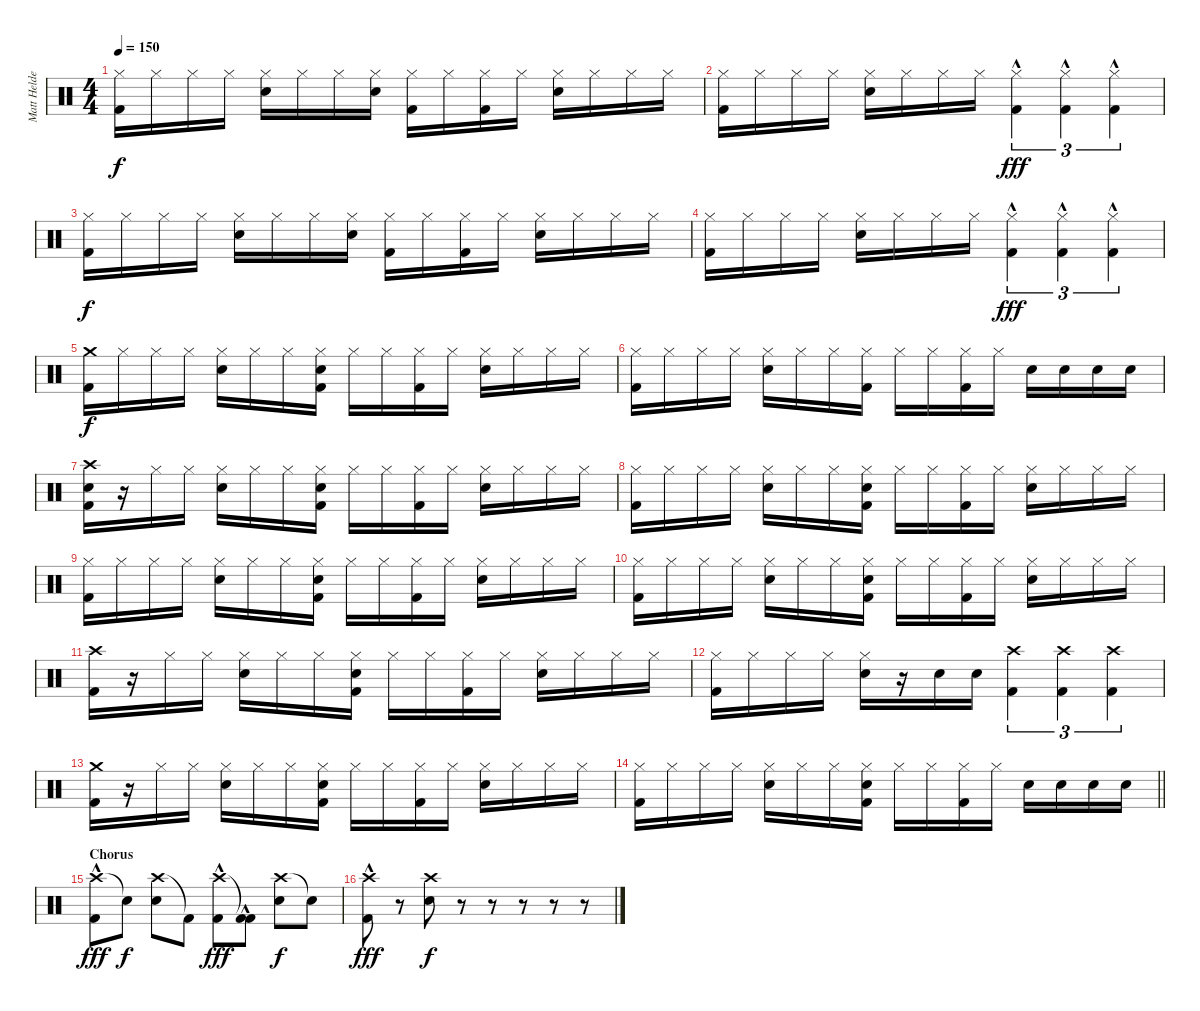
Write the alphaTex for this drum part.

\track ("Matt Helders" "Matt Helde") {instrument percussion}
\staff {score}
\articulation defaults
\ts (4 4)
\tempo 150
\clef neutral
\ks c
("Hi-Hat (closed)" "Kick (hit) 2").16{dy f} "Hi-Hat (closed)".16 "Hi-Hat (closed)".16 "Hi-Hat (closed)".16 ("Hi-Hat (closed)" "Snare (hit) 2").16 "Hi-Hat (closed)".16 "Hi-Hat (closed)".16 ("Hi-Hat (closed)" "Snare (hit) 2").16 ("Hi-Hat (closed)" "Kick (hit) 2").16 "Hi-Hat (closed)".16 ("Hi-Hat (closed)" "Kick (hit) 2").16 "Hi-Hat (closed)".16 ("Hi-Hat (closed)" "Snare (hit) 2").16 "Hi-Hat (closed)".16 "Hi-Hat (closed)".16 "Hi-Hat (closed)".16 |
("Hi-Hat (closed)" "Kick (hit) 2").16 "Hi-Hat (closed)".16 "Hi-Hat (closed)".16 "Hi-Hat (closed)".16 ("Hi-Hat (closed)" "Snare (hit) 2").16 "Hi-Hat (closed)".16 "Hi-Hat (closed)".16 "Hi-Hat (closed)".16 ("Kick (hit) 2" "Hi-Hat (closed)"{hac}).4{tu (3 2) dy fff} ("Kick (hit) 2" "Hi-Hat (closed)"{hac}).4{tu (3 2)} ("Kick (hit) 2" "Hi-Hat (closed)"{hac}).4{tu (3 2)} |
("Hi-Hat (closed)" "Kick (hit) 2").16{dy f} "Hi-Hat (closed)".16 "Hi-Hat (closed)".16 "Hi-Hat (closed)".16 ("Hi-Hat (closed)" "Snare (hit) 2").16 "Hi-Hat (closed)".16 "Hi-Hat (closed)".16 ("Hi-Hat (closed)" "Snare (hit) 2").16 ("Hi-Hat (closed)" "Kick (hit) 2").16 "Hi-Hat (closed)".16 ("Hi-Hat (closed)" "Kick (hit) 2").16 "Hi-Hat (closed)".16 ("Hi-Hat (closed)" "Snare (hit) 2").16 "Hi-Hat (closed)".16 "Hi-Hat (closed)".16 "Hi-Hat (closed)".16 |
("Hi-Hat (closed)" "Kick (hit) 2").16 "Hi-Hat (closed)".16 "Hi-Hat (closed)".16 "Hi-Hat (closed)".16 ("Hi-Hat (closed)" "Snare (hit) 2").16 "Hi-Hat (closed)".16 "Hi-Hat (closed)".16 "Hi-Hat (closed)".16 ("Kick (hit) 2" "Hi-Hat (closed)"{hac}).4{tu (3 2) dy fff} ("Kick (hit) 2" "Hi-Hat (closed)"{hac}).4{tu (3 2)} ("Kick (hit) 2" "Hi-Hat (closed)"{hac}).4{tu (3 2)} |
("Crash medium (hit)" "Kick (hit) 2").16{dy f} "Hi-Hat (closed)".16 "Hi-Hat (closed)".16 "Hi-Hat (closed)".16 ("Hi-Hat (closed)" "Snare (hit) 2").16 "Hi-Hat (closed)".16 "Hi-Hat (closed)".16 ("Hi-Hat (closed)" "Snare (hit) 2" "Kick (hit) 2").16 "Hi-Hat (closed)".16 "Hi-Hat (closed)".16 ("Hi-Hat (closed)" "Kick (hit) 2").16 "Hi-Hat (closed)".16 ("Hi-Hat (closed)" "Snare (hit) 2").16 "Hi-Hat (closed)".16 "Hi-Hat (closed)".16 "Hi-Hat (closed)".16 |
("Hi-Hat (closed)" "Kick (hit) 2").16 "Hi-Hat (closed)".16 "Hi-Hat (closed)".16 "Hi-Hat (closed)".16 ("Hi-Hat (closed)" "Snare (hit) 2").16 "Hi-Hat (closed)".16 "Hi-Hat (closed)".16 ("Hi-Hat (closed)" "Kick (hit) 2").16 "Hi-Hat (closed)".16 "Hi-Hat (closed)".16 ("Hi-Hat (closed)" "Kick (hit) 2").16 "Hi-Hat (closed)".16 "Snare (hit) 2".16 "Snare (hit) 2".16 "Snare (hit) 2".16 "Snare (hit) 2".16 |
("Crash high (hit)" "Snare (hit) 2" "Kick (hit) 2").16 r.16 "Hi-Hat (closed)".16 "Hi-Hat (closed)".16 ("Hi-Hat (closed)" "Snare (hit) 2").16 "Hi-Hat (closed)".16 "Hi-Hat (closed)".16 ("Hi-Hat (closed)" "Snare (hit) 2" "Kick (hit) 2").16 "Hi-Hat (closed)".16 "Hi-Hat (closed)".16 ("Hi-Hat (closed)" "Kick (hit) 2").16 "Hi-Hat (closed)".16 ("Hi-Hat (closed)" "Snare (hit) 2").16 "Hi-Hat (closed)".16 "Hi-Hat (closed)".16 "Hi-Hat (closed)".16 |
("Hi-Hat (closed)" "Kick (hit) 2").16 "Hi-Hat (closed)".16 "Hi-Hat (closed)".16 "Hi-Hat (closed)".16 ("Hi-Hat (closed)" "Snare (hit) 2").16 "Hi-Hat (closed)".16 "Hi-Hat (closed)".16 ("Hi-Hat (closed)" "Snare (hit) 2" "Kick (hit) 2").16 "Hi-Hat (closed)".16 "Hi-Hat (closed)".16 ("Hi-Hat (closed)" "Kick (hit) 2").16 "Hi-Hat (closed)".16 ("Hi-Hat (closed)" "Snare (hit) 2").16 "Hi-Hat (closed)".16 "Hi-Hat (closed)".16 "Hi-Hat (closed)".16 |
("Hi-Hat (closed)" "Kick (hit) 2").16 "Hi-Hat (closed)".16 "Hi-Hat (closed)".16 "Hi-Hat (closed)".16 ("Hi-Hat (closed)" "Snare (hit) 2").16 "Hi-Hat (closed)".16 "Hi-Hat (closed)".16 ("Hi-Hat (closed)" "Snare (hit) 2" "Kick (hit) 2").16 "Hi-Hat (closed)".16 "Hi-Hat (closed)".16 ("Hi-Hat (closed)" "Kick (hit) 2").16 "Hi-Hat (closed)".16 ("Hi-Hat (closed)" "Snare (hit) 2").16 "Hi-Hat (closed)".16 "Hi-Hat (closed)".16 "Hi-Hat (closed)".16 |
("Hi-Hat (closed)" "Kick (hit) 2").16 "Hi-Hat (closed)".16 "Hi-Hat (closed)".16 "Hi-Hat (closed)".16 ("Hi-Hat (closed)" "Snare (hit) 2").16 "Hi-Hat (closed)".16 "Hi-Hat (closed)".16 ("Hi-Hat (closed)" "Snare (hit) 2" "Kick (hit) 2").16 "Hi-Hat (closed)".16 "Hi-Hat (closed)".16 ("Hi-Hat (closed)" "Kick (hit) 2").16 "Hi-Hat (closed)".16 ("Hi-Hat (closed)" "Snare (hit) 2").16 "Hi-Hat (closed)".16 "Hi-Hat (closed)".16 "Hi-Hat (closed)".16 |
("Crash high (hit)" "Kick (hit) 2").16 r.16 "Hi-Hat (closed)".16 "Hi-Hat (closed)".16 ("Hi-Hat (closed)" "Snare (hit) 2").16 "Hi-Hat (closed)".16 "Hi-Hat (closed)".16 ("Hi-Hat (closed)" "Snare (hit) 2" "Kick (hit) 2").16 "Hi-Hat (closed)".16 "Hi-Hat (closed)".16 ("Hi-Hat (closed)" "Kick (hit) 2").16 "Hi-Hat (closed)".16 ("Hi-Hat (closed)" "Snare (hit) 2").16 "Hi-Hat (closed)".16 "Hi-Hat (closed)".16 "Hi-Hat (closed)".16 |
("Hi-Hat (closed)" "Kick (hit) 2").16 "Hi-Hat (closed)".16 "Hi-Hat (closed)".16 "Hi-Hat (closed)".16 ("Hi-Hat (closed)" "Snare (hit) 2").16 r.16 "Snare (hit) 2".16 "Snare (hit) 2".16 ("Kick (hit) 2" "Crash high (hit)").4{tu (3 2)} ("Kick (hit) 2" "Crash high (hit)").4{tu (3 2)} ("Kick (hit) 2" "Crash high (hit)").4{tu (3 2)} |
("Crash medium (hit)" "Kick (hit) 2").16 r.16 "Hi-Hat (closed)".16 "Hi-Hat (closed)".16 ("Hi-Hat (closed)" "Snare (hit) 2").16 "Hi-Hat (closed)".16 "Hi-Hat (closed)".16 ("Hi-Hat (closed)" "Snare (hit) 2" "Kick (hit) 2").16 "Hi-Hat (closed)".16 "Hi-Hat (closed)".16 ("Hi-Hat (closed)" "Kick (hit) 2").16 "Hi-Hat (closed)".16 ("Hi-Hat (closed)" "Snare (hit) 2").16 "Hi-Hat (closed)".16 "Hi-Hat (closed)".16 "Hi-Hat (closed)".16 |
\barLineRight lightlight
("Hi-Hat (closed)" "Kick (hit) 2").16 "Hi-Hat (closed)".16 "Hi-Hat (closed)".16 "Hi-Hat (closed)".16 ("Hi-Hat (closed)" "Snare (hit) 2").16 "Hi-Hat (closed)".16 "Hi-Hat (closed)".16 ("Hi-Hat (closed)" "Snare (hit) 2" "Kick (hit) 2").16 "Hi-Hat (closed)".16 "Hi-Hat (closed)".16 ("Hi-Hat (closed)" "Kick (hit) 2").16 "Hi-Hat (closed)".16 "Snare (hit) 2".16 "Snare (hit) 2".16 "Snare (hit) 2".16 "Snare (hit) 2".16 |
\section ("" "Chorus")
("Crash high (hit)" "Kick (hit) 2"{hac}).8{dy fff} "Snare (hit)"{t}.8{dy f} ("Crash high (hit)" "Snare (hit) 2").8 "Kick (hit) 2"{t}.8 ("Crash high (hit)" "Kick (hit) 2"{hac}).8{dy fff} ("Kick (hit) 2"{t} "Kick (hit) 2"{hac}).8 ("Crash high (hit)" "Snare (hit) 2").8{dy f} "Snare (hit)"{t}.8 |
("Crash high (hit)" "Kick (hit) 2"{hac}).8{dy fff} r.8 ("Crash high (hit)" "Snare (hit) 2").8{dy f} r.8 r.8 r.8 r.8 r.8
